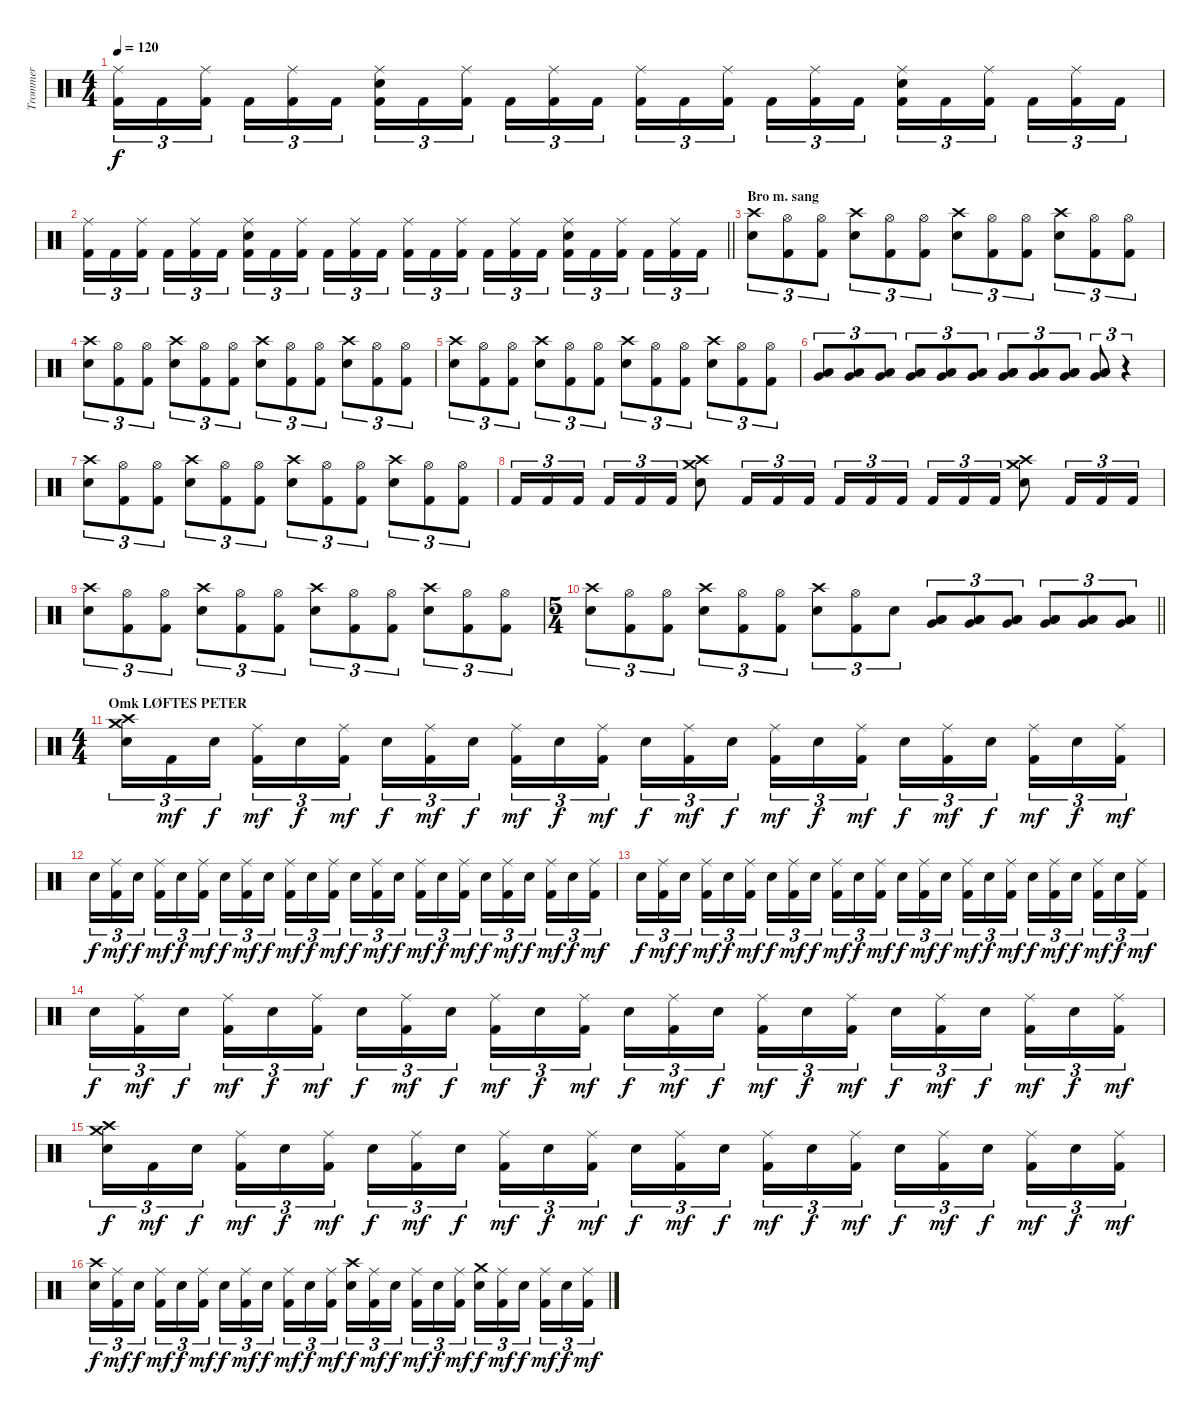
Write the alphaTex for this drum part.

\track ("Trommer" "Trommer") {instrument percussion}
\staff {score}
\articulation defaults
\ts (4 4)
\tempo 120
\clef neutral
\ks c
("Ride (middle)" "Kick (hit) 2").16{tu (3 2) dy f} "Kick (hit) 2".16{tu (3 2)} ("Ride (middle)" "Kick (hit) 2").16{tu (3 2) beam splitsecondary} "Kick (hit) 2".16{tu (3 2)} ("Ride (middle)" "Kick (hit) 2").16{tu (3 2)} "Kick (hit) 2".16{tu (3 2)} ("Ride (middle)" "Snare (hit) 2" "Kick (hit) 2").16{tu (3 2)} "Kick (hit) 2".16{tu (3 2)} ("Ride (middle)" "Kick (hit) 2").16{tu (3 2) beam splitsecondary} "Kick (hit) 2".16{tu (3 2)} ("Ride (middle)" "Kick (hit) 2").16{tu (3 2)} "Kick (hit) 2".16{tu (3 2)} ("Ride (middle)" "Kick (hit) 2").16{tu (3 2)} "Kick (hit) 2".16{tu (3 2)} ("Ride (middle)" "Kick (hit) 2").16{tu (3 2) beam splitsecondary} "Kick (hit) 2".16{tu (3 2)} ("Ride (middle)" "Kick (hit) 2").16{tu (3 2)} "Kick (hit) 2".16{tu (3 2)} ("Ride (middle)" "Snare (hit) 2" "Kick (hit) 2").16{tu (3 2)} "Kick (hit) 2".16{tu (3 2)} ("Ride (middle)" "Kick (hit) 2").16{tu (3 2) beam splitsecondary} "Kick (hit) 2".16{tu (3 2)} ("Ride (middle)" "Kick (hit) 2").16{tu (3 2)} "Kick (hit) 2".16{tu (3 2)} |
\barLineRight lightlight
("Ride (middle)" "Kick (hit) 2").16{tu (3 2)} "Kick (hit) 2".16{tu (3 2)} ("Ride (middle)" "Kick (hit) 2").16{tu (3 2) beam splitsecondary} "Kick (hit) 2".16{tu (3 2)} ("Ride (middle)" "Kick (hit) 2").16{tu (3 2)} "Kick (hit) 2".16{tu (3 2)} ("Ride (middle)" "Snare (hit) 2" "Kick (hit) 2").16{tu (3 2)} "Kick (hit) 2".16{tu (3 2)} ("Ride (middle)" "Kick (hit) 2").16{tu (3 2) beam splitsecondary} "Kick (hit) 2".16{tu (3 2)} ("Ride (middle)" "Kick (hit) 2").16{tu (3 2)} "Kick (hit) 2".16{tu (3 2)} ("Ride (middle)" "Kick (hit) 2").16{tu (3 2)} "Kick (hit) 2".16{tu (3 2)} ("Ride (middle)" "Kick (hit) 2").16{tu (3 2) beam splitsecondary} "Kick (hit) 2".16{tu (3 2)} ("Ride (middle)" "Kick (hit) 2").16{tu (3 2)} "Kick (hit) 2".16{tu (3 2)} ("Ride (middle)" "Snare (hit) 2" "Kick (hit) 2").16{tu (3 2)} "Kick (hit) 2".16{tu (3 2)} ("Ride (middle)" "Kick (hit) 2").16{tu (3 2) beam splitsecondary} "Kick (hit) 2".16{tu (3 2)} ("Ride (middle)" "Kick (hit) 2").16{tu (3 2)} "Kick (hit) 2".16{tu (3 2)} |
\section ("" "Bro m. sang")
("Crash high (hit)" "Snare (hit) 2").8{tu (3 2)} ("Hi-Hat (open)" "Kick (hit) 2").8{tu (3 2)} ("Hi-Hat (open)" "Kick (hit) 2").8{tu (3 2)} ("Crash high (hit)" "Snare (hit) 2").8{tu (3 2)} ("Hi-Hat (open)" "Kick (hit) 2").8{tu (3 2)} ("Hi-Hat (open)" "Kick (hit) 2").8{tu (3 2)} ("Crash high (hit)" "Snare (hit) 2").8{tu (3 2)} ("Hi-Hat (open)" "Kick (hit) 2").8{tu (3 2)} ("Hi-Hat (open)" "Kick (hit) 2").8{tu (3 2)} ("Crash high (hit)" "Snare (hit) 2").8{tu (3 2)} ("Hi-Hat (open)" "Kick (hit) 2").8{tu (3 2)} ("Hi-Hat (open)" "Kick (hit) 2").8{tu (3 2)} |
("Crash high (hit)" "Snare (hit) 2").8{tu (3 2)} ("Hi-Hat (open)" "Kick (hit) 2").8{tu (3 2)} ("Hi-Hat (open)" "Kick (hit) 2").8{tu (3 2)} ("Crash high (hit)" "Snare (hit) 2").8{tu (3 2)} ("Hi-Hat (open)" "Kick (hit) 2").8{tu (3 2)} ("Hi-Hat (open)" "Kick (hit) 2").8{tu (3 2)} ("Crash high (hit)" "Snare (hit) 2").8{tu (3 2)} ("Hi-Hat (open)" "Kick (hit) 2").8{tu (3 2)} ("Hi-Hat (open)" "Kick (hit) 2").8{tu (3 2)} ("Crash high (hit)" "Snare (hit) 2").8{tu (3 2)} ("Hi-Hat (open)" "Kick (hit) 2").8{tu (3 2)} ("Hi-Hat (open)" "Kick (hit) 2").8{tu (3 2)} |
("Crash high (hit)" "Snare (hit) 2").8{tu (3 2)} ("Hi-Hat (open)" "Kick (hit) 2").8{tu (3 2)} ("Hi-Hat (open)" "Kick (hit) 2").8{tu (3 2)} ("Crash high (hit)" "Snare (hit) 2").8{tu (3 2)} ("Hi-Hat (open)" "Kick (hit) 2").8{tu (3 2)} ("Hi-Hat (open)" "Kick (hit) 2").8{tu (3 2)} ("Crash high (hit)" "Snare (hit) 2").8{tu (3 2)} ("Hi-Hat (open)" "Kick (hit) 2").8{tu (3 2)} ("Hi-Hat (open)" "Kick (hit) 2").8{tu (3 2)} ("Crash high (hit)" "Snare (hit) 2").8{tu (3 2)} ("Hi-Hat (open)" "Kick (hit) 2").8{tu (3 2)} ("Hi-Hat (open)" "Kick (hit) 2").8{tu (3 2)} |
("Very Low Tom (hit)" "Low Tom (hit)").8{tu (3 2)} ("Very Low Tom (hit)" "Low Tom (hit)").8{tu (3 2)} ("Very Low Tom (hit)" "Low Tom (hit)").8{tu (3 2)} ("Very Low Tom (hit)" "Low Tom (hit)").8{tu (3 2)} ("Very Low Tom (hit)" "Low Tom (hit)").8{tu (3 2)} ("Very Low Tom (hit)" "Low Tom (hit)").8{tu (3 2)} ("Low Tom (hit)" "Low Floor Tom (hit)" "Very Low Tom (hit)").8{tu (3 2)} ("Low Tom (hit)" "Low Floor Tom (hit)" "Very Low Tom (hit)").8{tu (3 2)} ("Low Tom (hit)" "Low Floor Tom (hit)" "Very Low Tom (hit)").8{tu (3 2)} ("Low Tom (hit)" "Low Floor Tom (hit)" "Very Low Tom (hit)").8{tu (3 2)} r.4{tu (3 2)} |
("Crash high (hit)" "Snare (hit) 2").8{tu (3 2)} ("Hi-Hat (open)" "Kick (hit) 2").8{tu (3 2)} ("Hi-Hat (open)" "Kick (hit) 2").8{tu (3 2)} ("Crash high (hit)" "Snare (hit) 2").8{tu (3 2)} ("Hi-Hat (open)" "Kick (hit) 2").8{tu (3 2)} ("Hi-Hat (open)" "Kick (hit) 2").8{tu (3 2)} ("Crash high (hit)" "Snare (hit) 2").8{tu (3 2)} ("Hi-Hat (open)" "Kick (hit) 2").8{tu (3 2)} ("Hi-Hat (open)" "Kick (hit) 2").8{tu (3 2)} ("Crash high (hit)" "Snare (hit) 2").8{tu (3 2)} ("Hi-Hat (open)" "Kick (hit) 2").8{tu (3 2)} ("Hi-Hat (open)" "Kick (hit) 2").8{tu (3 2)} |
"Kick (hit) 2".16{tu (3 2)} "Kick (hit) 2".16{tu (3 2)} "Kick (hit) 2".16{tu (3 2) beam splitsecondary} "Kick (hit) 2".16{tu (3 2)} "Kick (hit) 2".16{tu (3 2)} "Kick (hit) 2".16{tu (3 2)} ("Crash high (hit)" "Crash medium (hit)" "Snare (hit) 2").8 "Kick (hit) 2".16{tu (3 2)} "Kick (hit) 2".16{tu (3 2)} "Kick (hit) 2".16{tu (3 2)} "Kick (hit) 2".16{tu (3 2)} "Kick (hit) 2".16{tu (3 2)} "Kick (hit) 2".16{tu (3 2) beam splitsecondary} "Kick (hit) 2".16{tu (3 2)} "Kick (hit) 2".16{tu (3 2)} "Kick (hit) 2".16{tu (3 2)} ("Crash medium (hit)" "Crash high (hit)" "Snare (hit) 2").8 "Kick (hit) 2".16{tu (3 2)} "Kick (hit) 2".16{tu (3 2)} "Kick (hit) 2".16{tu (3 2)} |
("Crash high (hit)" "Snare (hit) 2").8{tu (3 2)} ("Hi-Hat (open)" "Kick (hit) 2").8{tu (3 2)} ("Hi-Hat (open)" "Kick (hit) 2").8{tu (3 2)} ("Crash high (hit)" "Snare (hit) 2").8{tu (3 2)} ("Hi-Hat (open)" "Kick (hit) 2").8{tu (3 2)} ("Hi-Hat (open)" "Kick (hit) 2").8{tu (3 2)} ("Crash high (hit)" "Snare (hit) 2").8{tu (3 2)} ("Hi-Hat (open)" "Kick (hit) 2").8{tu (3 2)} ("Hi-Hat (open)" "Kick (hit) 2").8{tu (3 2)} ("Crash high (hit)" "Snare (hit) 2").8{tu (3 2)} ("Hi-Hat (open)" "Kick (hit) 2").8{tu (3 2)} ("Hi-Hat (open)" "Kick (hit) 2").8{tu (3 2)} |
\ts (5 4)
\barLineRight lightlight
("Crash high (hit)" "Snare (hit) 2").8{tu (3 2)} ("Hi-Hat (open)" "Kick (hit) 2").8{tu (3 2)} ("Hi-Hat (open)" "Kick (hit) 2").8{tu (3 2)} ("Crash high (hit)" "Snare (hit) 2").8{tu (3 2)} ("Hi-Hat (open)" "Kick (hit) 2").8{tu (3 2)} ("Hi-Hat (open)" "Kick (hit) 2").8{tu (3 2)} ("Crash high (hit)" "Snare (hit) 2").8{tu (3 2)} ("Hi-Hat (open)" "Kick (hit) 2").8{tu (3 2)} "Snare (hit) 2".8{tu (3 2)} ("Low Tom (hit)" "Low Floor Tom (hit)" "Very Low Tom (hit)").8{tu (3 2)} ("Low Tom (hit)" "Low Floor Tom (hit)" "Very Low Tom (hit)").8{tu (3 2)} ("Low Tom (hit)" "Low Floor Tom (hit)" "Very Low Tom (hit)").8{tu (3 2)} ("Low Tom (hit)" "Low Floor Tom (hit)" "Very Low Tom (hit)").8{tu (3 2)} ("Low Tom (hit)" "Low Floor Tom (hit)" "Very Low Tom (hit)").8{tu (3 2)} ("Low Tom (hit)" "Low Floor Tom (hit)" "Very Low Tom (hit)").8{tu (3 2)} |
\ts (4 4)
\section ("" "Omk LØFTES PETER")
("Crash medium (hit)" "Crash high (hit)" "Snare (hit) 2").16{tu (3 2)} "Kick (hit) 2".16{tu (3 2) dy mf} "Snare (hit) 2".16{tu (3 2) dy f beam splitsecondary} ("Ride (middle)" "Kick (hit) 2").16{tu (3 2) dy mf} "Snare (hit) 2".16{tu (3 2) dy f} ("Ride (middle)" "Kick (hit) 2").16{tu (3 2) dy mf} "Snare (hit) 2".16{tu (3 2) dy f} ("Ride (middle)" "Kick (hit) 2").16{tu (3 2) dy mf} "Snare (hit) 2".16{tu (3 2) dy f beam splitsecondary} ("Ride (middle)" "Kick (hit) 2").16{tu (3 2) dy mf} "Snare (hit) 2".16{tu (3 2) dy f} ("Ride (middle)" "Kick (hit) 2").16{tu (3 2) dy mf} "Snare (hit) 2".16{tu (3 2) dy f} ("Ride (middle)" "Kick (hit) 2").16{tu (3 2) dy mf} "Snare (hit) 2".16{tu (3 2) dy f beam splitsecondary} ("Ride (middle)" "Kick (hit) 2").16{tu (3 2) dy mf} "Snare (hit) 2".16{tu (3 2) dy f} ("Ride (middle)" "Kick (hit) 2").16{tu (3 2) dy mf} "Snare (hit) 2".16{tu (3 2) dy f} ("Ride (middle)" "Kick (hit) 2").16{tu (3 2) dy mf} "Snare (hit) 2".16{tu (3 2) dy f beam splitsecondary} ("Ride (middle)" "Kick (hit) 2").16{tu (3 2) dy mf} "Snare (hit) 2".16{tu (3 2) dy f} ("Ride (middle)" "Kick (hit) 2").16{tu (3 2) dy mf} |
"Snare (hit) 2".16{tu (3 2) dy f} ("Ride (middle)" "Kick (hit) 2").16{tu (3 2) dy mf} "Snare (hit) 2".16{tu (3 2) dy f beam splitsecondary} ("Ride (middle)" "Kick (hit) 2").16{tu (3 2) dy mf} "Snare (hit) 2".16{tu (3 2) dy f} ("Ride (middle)" "Kick (hit) 2").16{tu (3 2) dy mf} "Snare (hit) 2".16{tu (3 2) dy f} ("Ride (middle)" "Kick (hit) 2").16{tu (3 2) dy mf} "Snare (hit) 2".16{tu (3 2) dy f beam splitsecondary} ("Ride (middle)" "Kick (hit) 2").16{tu (3 2) dy mf} "Snare (hit) 2".16{tu (3 2) dy f} ("Ride (middle)" "Kick (hit) 2").16{tu (3 2) dy mf} "Snare (hit) 2".16{tu (3 2) dy f} ("Ride (middle)" "Kick (hit) 2").16{tu (3 2) dy mf} "Snare (hit) 2".16{tu (3 2) dy f beam splitsecondary} ("Ride (middle)" "Kick (hit) 2").16{tu (3 2) dy mf} "Snare (hit) 2".16{tu (3 2) dy f} ("Ride (middle)" "Kick (hit) 2").16{tu (3 2) dy mf} "Snare (hit) 2".16{tu (3 2) dy f} ("Ride (middle)" "Kick (hit) 2").16{tu (3 2) dy mf} "Snare (hit) 2".16{tu (3 2) dy f beam splitsecondary} ("Ride (middle)" "Kick (hit) 2").16{tu (3 2) dy mf} "Snare (hit) 2".16{tu (3 2) dy f} ("Ride (middle)" "Kick (hit) 2").16{tu (3 2) dy mf} |
"Snare (hit) 2".16{tu (3 2) dy f} ("Ride (middle)" "Kick (hit) 2").16{tu (3 2) dy mf} "Snare (hit) 2".16{tu (3 2) dy f beam splitsecondary} ("Ride (middle)" "Kick (hit) 2").16{tu (3 2) dy mf} "Snare (hit) 2".16{tu (3 2) dy f} ("Ride (middle)" "Kick (hit) 2").16{tu (3 2) dy mf} "Snare (hit) 2".16{tu (3 2) dy f} ("Ride (middle)" "Kick (hit) 2").16{tu (3 2) dy mf} "Snare (hit) 2".16{tu (3 2) dy f beam splitsecondary} ("Ride (middle)" "Kick (hit) 2").16{tu (3 2) dy mf} "Snare (hit) 2".16{tu (3 2) dy f} ("Ride (middle)" "Kick (hit) 2").16{tu (3 2) dy mf} "Snare (hit) 2".16{tu (3 2) dy f} ("Ride (middle)" "Kick (hit) 2").16{tu (3 2) dy mf} "Snare (hit) 2".16{tu (3 2) dy f beam splitsecondary} ("Ride (middle)" "Kick (hit) 2").16{tu (3 2) dy mf} "Snare (hit) 2".16{tu (3 2) dy f} ("Ride (middle)" "Kick (hit) 2").16{tu (3 2) dy mf} "Snare (hit) 2".16{tu (3 2) dy f} ("Ride (middle)" "Kick (hit) 2").16{tu (3 2) dy mf} "Snare (hit) 2".16{tu (3 2) dy f beam splitsecondary} ("Ride (middle)" "Kick (hit) 2").16{tu (3 2) dy mf} "Snare (hit) 2".16{tu (3 2) dy f} ("Ride (middle)" "Kick (hit) 2").16{tu (3 2) dy mf} |
"Snare (hit) 2".16{tu (3 2) dy f} ("Ride (middle)" "Kick (hit) 2").16{tu (3 2) dy mf} "Snare (hit) 2".16{tu (3 2) dy f beam splitsecondary} ("Ride (middle)" "Kick (hit) 2").16{tu (3 2) dy mf} "Snare (hit) 2".16{tu (3 2) dy f} ("Ride (middle)" "Kick (hit) 2").16{tu (3 2) dy mf} "Snare (hit) 2".16{tu (3 2) dy f} ("Ride (middle)" "Kick (hit) 2").16{tu (3 2) dy mf} "Snare (hit) 2".16{tu (3 2) dy f beam splitsecondary} ("Ride (middle)" "Kick (hit) 2").16{tu (3 2) dy mf} "Snare (hit) 2".16{tu (3 2) dy f} ("Ride (middle)" "Kick (hit) 2").16{tu (3 2) dy mf} "Snare (hit) 2".16{tu (3 2) dy f} ("Ride (middle)" "Kick (hit) 2").16{tu (3 2) dy mf} "Snare (hit) 2".16{tu (3 2) dy f beam splitsecondary} ("Ride (middle)" "Kick (hit) 2").16{tu (3 2) dy mf} "Snare (hit) 2".16{tu (3 2) dy f} ("Ride (middle)" "Kick (hit) 2").16{tu (3 2) dy mf} "Snare (hit) 2".16{tu (3 2) dy f} ("Ride (middle)" "Kick (hit) 2").16{tu (3 2) dy mf} "Snare (hit) 2".16{tu (3 2) dy f beam splitsecondary} ("Ride (middle)" "Kick (hit) 2").16{tu (3 2) dy mf} "Snare (hit) 2".16{tu (3 2) dy f} ("Ride (middle)" "Kick (hit) 2").16{tu (3 2) dy mf} |
("Crash medium (hit)" "Crash high (hit)" "Snare (hit) 2").16{tu (3 2) dy f} "Kick (hit) 2".16{tu (3 2) dy mf} "Snare (hit) 2".16{tu (3 2) dy f beam splitsecondary} ("Ride (middle)" "Kick (hit) 2").16{tu (3 2) dy mf} "Snare (hit) 2".16{tu (3 2) dy f} ("Ride (middle)" "Kick (hit) 2").16{tu (3 2) dy mf} "Snare (hit) 2".16{tu (3 2) dy f} ("Ride (middle)" "Kick (hit) 2").16{tu (3 2) dy mf} "Snare (hit) 2".16{tu (3 2) dy f beam splitsecondary} ("Ride (middle)" "Kick (hit) 2").16{tu (3 2) dy mf} "Snare (hit) 2".16{tu (3 2) dy f} ("Ride (middle)" "Kick (hit) 2").16{tu (3 2) dy mf} "Snare (hit) 2".16{tu (3 2) dy f} ("Ride (middle)" "Kick (hit) 2").16{tu (3 2) dy mf} "Snare (hit) 2".16{tu (3 2) dy f beam splitsecondary} ("Ride (middle)" "Kick (hit) 2").16{tu (3 2) dy mf} "Snare (hit) 2".16{tu (3 2) dy f} ("Ride (middle)" "Kick (hit) 2").16{tu (3 2) dy mf} "Snare (hit) 2".16{tu (3 2) dy f} ("Ride (middle)" "Kick (hit) 2").16{tu (3 2) dy mf} "Snare (hit) 2".16{tu (3 2) dy f beam splitsecondary} ("Ride (middle)" "Kick (hit) 2").16{tu (3 2) dy mf} "Snare (hit) 2".16{tu (3 2) dy f} ("Ride (middle)" "Kick (hit) 2").16{tu (3 2) dy mf} |
("Crash high (hit)" "Snare (hit) 2").16{tu (3 2) dy f} ("Ride (middle)" "Kick (hit) 2").16{tu (3 2) dy mf} "Snare (hit) 2".16{tu (3 2) dy f beam splitsecondary} ("Ride (middle)" "Kick (hit) 2").16{tu (3 2) dy mf} "Snare (hit) 2".16{tu (3 2) dy f} ("Ride (middle)" "Kick (hit) 2").16{tu (3 2) dy mf} "Snare (hit) 2".16{tu (3 2) dy f} ("Ride (middle)" "Kick (hit) 2").16{tu (3 2) dy mf} "Snare (hit) 2".16{tu (3 2) dy f beam splitsecondary} ("Ride (middle)" "Kick (hit) 2").16{tu (3 2) dy mf} "Snare (hit) 2".16{tu (3 2) dy f} ("Ride (middle)" "Kick (hit) 2").16{tu (3 2) dy mf} ("Crash high (hit)" "Snare (hit) 2").16{tu (3 2) dy f} ("Ride (middle)" "Kick (hit) 2").16{tu (3 2) dy mf} "Snare (hit) 2".16{tu (3 2) dy f beam splitsecondary} ("Ride (middle)" "Kick (hit) 2").16{tu (3 2) dy mf} "Snare (hit) 2".16{tu (3 2) dy f} ("Ride (middle)" "Kick (hit) 2").16{tu (3 2) dy mf} ("Crash medium (hit)" "Snare (hit) 2").16{tu (3 2) dy f} ("Ride (middle)" "Kick (hit) 2").16{tu (3 2) dy mf} "Snare (hit) 2".16{tu (3 2) dy f beam splitsecondary} ("Ride (middle)" "Kick (hit) 2").16{tu (3 2) dy mf} "Snare (hit) 2".16{tu (3 2) dy f} ("Ride (middle)" "Kick (hit) 2").16{tu (3 2) dy mf}
